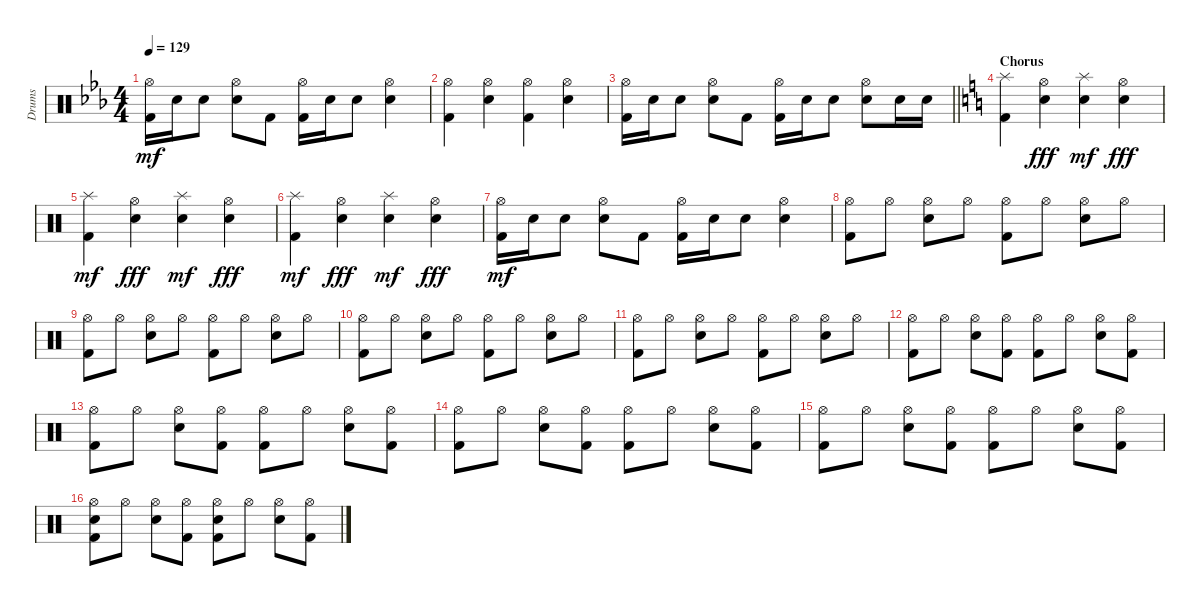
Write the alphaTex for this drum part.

\track ("Drums" "Drums") {instrument percussion}
\staff {score}
\articulation defaults
\ts (4 4)
\tempo 129
\clef neutral
\ks eb
("Hi-Hat (open)" "Kick (hit) 2").16{dy mf} "Electric Snare (hit)".16 "Electric Snare (hit)".8 ("Hi-Hat (open)" "Electric Snare (hit)").8 "Kick (hit) 2".8 ("Hi-Hat (open)" "Kick (hit) 2").16 "Electric Snare (hit)".16 "Electric Snare (hit)".8 ("Hi-Hat (open)" "Electric Snare (hit)").4 |
("Hi-Hat (open)" "Kick (hit) 2").4 ("Hi-Hat (open)" "Electric Snare (hit)").4 ("Hi-Hat (open)" "Kick (hit) 2").4 ("Hi-Hat (open)" "Electric Snare (hit)").4 |
\barLineRight lightlight
("Hi-Hat (open)" "Kick (hit) 2").16 "Electric Snare (hit)".16 "Electric Snare (hit)".8 ("Hi-Hat (open)" "Electric Snare (hit)").8 "Kick (hit) 2".8 ("Hi-Hat (open)" "Kick (hit) 2").16 "Electric Snare (hit)".16 "Electric Snare (hit)".8 ("Hi-Hat (open)" "Electric Snare (hit)").8 "Electric Snare (hit)".16 "Electric Snare (hit)".16 |
\section ("" "Chorus")
\ks c
("Splash (hit)" "Kick (hit) 2").4 ("Hi-Hat (open)" "Electric Snare (hit)").4{dy fff} ("Splash (hit)" "Electric Snare (hit)").4{dy mf} ("Hi-Hat (open)" "Electric Snare (hit)").4{dy fff} |
("Splash (hit)" "Kick (hit) 2").4{dy mf} ("Hi-Hat (open)" "Electric Snare (hit)").4{dy fff} ("Splash (hit)" "Electric Snare (hit)").4{dy mf} ("Hi-Hat (open)" "Electric Snare (hit)").4{dy fff} |
("Splash (hit)" "Kick (hit) 2").4{dy mf} ("Hi-Hat (open)" "Electric Snare (hit)").4{dy fff} ("Splash (hit)" "Electric Snare (hit)").4{dy mf} ("Hi-Hat (open)" "Electric Snare (hit)").4{dy fff} |
("Hi-Hat (open)" "Kick (hit) 2").16{dy mf} "Electric Snare (hit)".16 "Electric Snare (hit)".8 ("Hi-Hat (open)" "Electric Snare (hit)").8 "Kick (hit) 2".8 ("Hi-Hat (open)" "Kick (hit) 2").16 "Electric Snare (hit)".16 "Electric Snare (hit)".8 ("Hi-Hat (open)" "Electric Snare (hit)").4 |
("Hi-Hat (open)" "Kick (hit) 2").8 "Hi-Hat (open)".8 ("Hi-Hat (open)" "Electric Snare (hit)").8 "Hi-Hat (open)".8 ("Hi-Hat (open)" "Kick (hit) 2").8 "Hi-Hat (open)".8 ("Hi-Hat (open)" "Electric Snare (hit)").8 "Hi-Hat (open)".8 |
("Hi-Hat (open)" "Kick (hit) 2").8 "Hi-Hat (open)".8 ("Hi-Hat (open)" "Electric Snare (hit)").8 "Hi-Hat (open)".8 ("Hi-Hat (open)" "Kick (hit) 2").8 "Hi-Hat (open)".8 ("Hi-Hat (open)" "Electric Snare (hit)").8 "Hi-Hat (open)".8 |
("Hi-Hat (open)" "Kick (hit) 2").8 "Hi-Hat (open)".8 ("Hi-Hat (open)" "Electric Snare (hit)").8 "Hi-Hat (open)".8 ("Hi-Hat (open)" "Kick (hit) 2").8 "Hi-Hat (open)".8 ("Hi-Hat (open)" "Electric Snare (hit)").8 "Hi-Hat (open)".8 |
("Hi-Hat (open)" "Kick (hit) 2").8 "Hi-Hat (open)".8 ("Hi-Hat (open)" "Electric Snare (hit)").8 "Hi-Hat (open)".8 ("Hi-Hat (open)" "Kick (hit) 2").8 "Hi-Hat (open)".8 ("Hi-Hat (open)" "Electric Snare (hit)").8 "Hi-Hat (open)".8 |
("Hi-Hat (open)" "Kick (hit) 2").8 "Hi-Hat (open)".8 ("Hi-Hat (open)" "Electric Snare (hit)").8 ("Hi-Hat (open)" "Kick (hit) 2").8 ("Hi-Hat (open)" "Kick (hit) 2").8 "Hi-Hat (open)".8 ("Hi-Hat (open)" "Electric Snare (hit)").8 ("Hi-Hat (open)" "Kick (hit) 2").8 |
("Hi-Hat (open)" "Kick (hit) 2").8 "Hi-Hat (open)".8 ("Hi-Hat (open)" "Electric Snare (hit)").8 ("Hi-Hat (open)" "Kick (hit) 2").8 ("Hi-Hat (open)" "Kick (hit) 2").8 "Hi-Hat (open)".8 ("Hi-Hat (open)" "Electric Snare (hit)").8 ("Hi-Hat (open)" "Kick (hit) 2").8 |
("Hi-Hat (open)" "Kick (hit) 2").8 "Hi-Hat (open)".8 ("Hi-Hat (open)" "Electric Snare (hit)").8 ("Hi-Hat (open)" "Kick (hit) 2").8 ("Hi-Hat (open)" "Kick (hit) 2").8 "Hi-Hat (open)".8 ("Hi-Hat (open)" "Electric Snare (hit)").8 ("Hi-Hat (open)" "Kick (hit) 2").8 |
("Hi-Hat (open)" "Kick (hit) 2").8 "Hi-Hat (open)".8 ("Hi-Hat (open)" "Electric Snare (hit)").8 ("Hi-Hat (open)" "Kick (hit) 2").8 ("Hi-Hat (open)" "Kick (hit) 2").8 "Hi-Hat (open)".8 ("Hi-Hat (open)" "Electric Snare (hit)").8 ("Hi-Hat (open)" "Kick (hit) 2").8 |
("Hi-Hat (open)" "Electric Snare (hit)" "Kick (hit) 2").8 "Hi-Hat (open)".8 ("Hi-Hat (open)" "Electric Snare (hit)").8 ("Hi-Hat (open)" "Kick (hit) 2").8 ("Hi-Hat (open)" "Electric Snare (hit)" "Kick (hit) 2").8 "Hi-Hat (open)".8 ("Hi-Hat (open)" "Electric Snare (hit)").8 ("Hi-Hat (open)" "Kick (hit) 2").8
